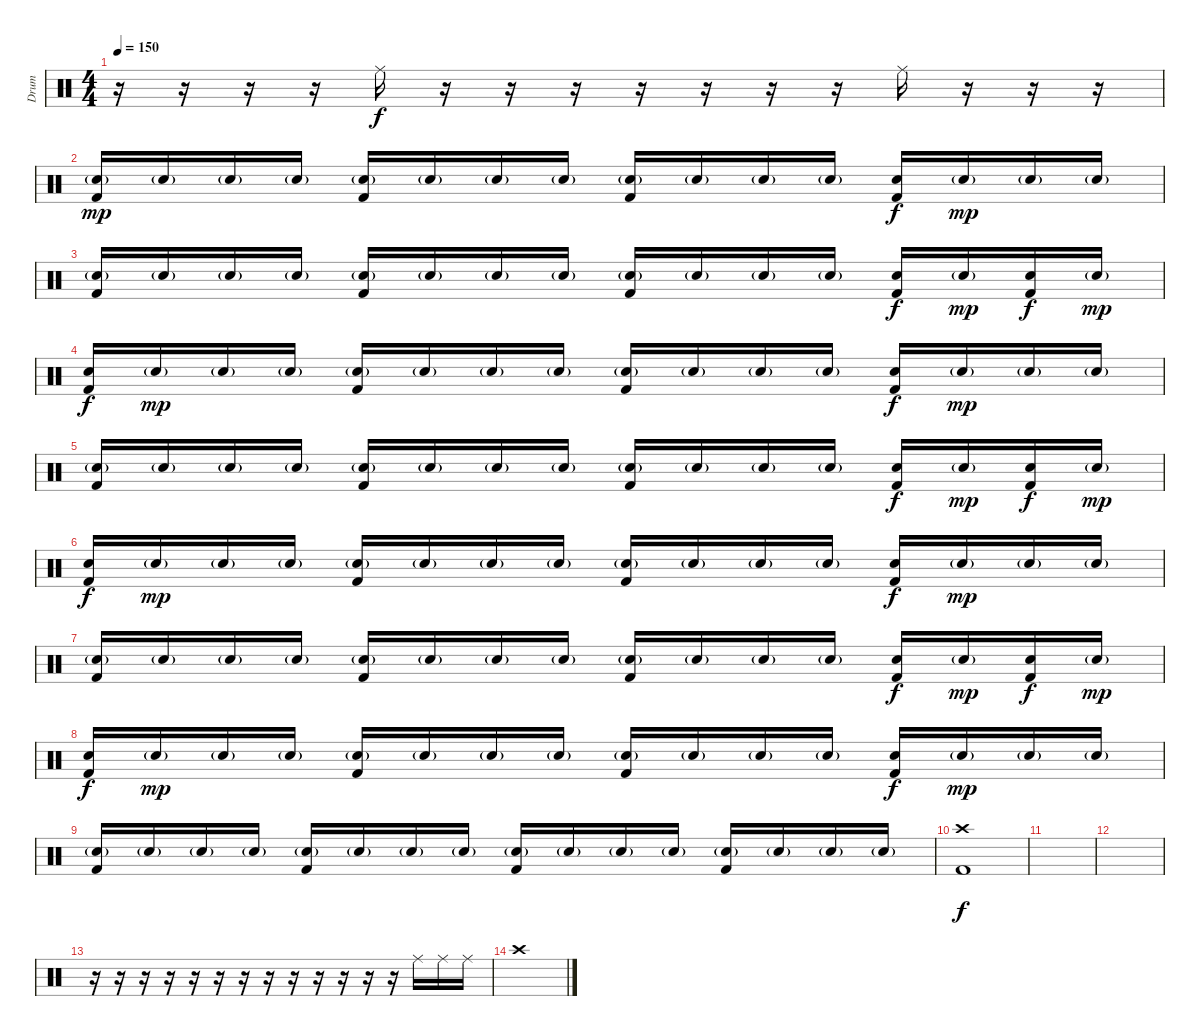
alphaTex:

\track ("Drum" "Drum") {instrument percussion}
\staff {score}
\articulation defaults
\ts (4 4)
\tempo 150
\clef neutral
\ks c
r.16{dy f} r.16 r.16 r.16 "Ride (middle)".16 r.16 r.16 r.16 r.16 r.16 r.16 r.16 "Ride (middle)".16 r.16 r.16 r.16 |
("Electric Snare (hit)"{g} "Kick (hit) 2").16{dy mp} "Electric Snare (hit)"{g}.16 "Electric Snare (hit)"{g}.16 "Electric Snare (hit)"{g}.16 ("Electric Snare (hit)"{g} "Kick (hit) 2").16 "Electric Snare (hit)"{g}.16 "Electric Snare (hit)"{g}.16 "Electric Snare (hit)"{g}.16 ("Electric Snare (hit)"{g} "Kick (hit) 2").16 "Electric Snare (hit)"{g}.16 "Electric Snare (hit)"{g}.16 "Electric Snare (hit)"{g}.16 ("Electric Snare (hit)" "Kick (hit) 2").16{dy f} "Electric Snare (hit)"{g}.16{dy mp} "Electric Snare (hit)"{g}.16 "Electric Snare (hit)"{g}.16 |
("Electric Snare (hit)"{g} "Kick (hit) 2").16 "Electric Snare (hit)"{g}.16 "Electric Snare (hit)"{g}.16 "Electric Snare (hit)"{g}.16 ("Electric Snare (hit)"{g} "Kick (hit) 2").16 "Electric Snare (hit)"{g}.16 "Electric Snare (hit)"{g}.16 "Electric Snare (hit)"{g}.16 ("Electric Snare (hit)"{g} "Kick (hit) 2").16 "Electric Snare (hit)"{g}.16 "Electric Snare (hit)"{g}.16 "Electric Snare (hit)"{g}.16 ("Electric Snare (hit)" "Kick (hit) 2").16{dy f} "Electric Snare (hit)"{g}.16{dy mp} ("Electric Snare (hit)" "Kick (hit) 2").16{dy f} "Electric Snare (hit)"{g}.16{dy mp} |
("Electric Snare (hit)" "Kick (hit) 2").16{dy f} "Electric Snare (hit)"{g}.16{dy mp} "Electric Snare (hit)"{g}.16 "Electric Snare (hit)"{g}.16 ("Electric Snare (hit)"{g} "Kick (hit) 2").16 "Electric Snare (hit)"{g}.16 "Electric Snare (hit)"{g}.16 "Electric Snare (hit)"{g}.16 ("Electric Snare (hit)"{g} "Kick (hit) 2").16 "Electric Snare (hit)"{g}.16 "Electric Snare (hit)"{g}.16 "Electric Snare (hit)"{g}.16 ("Electric Snare (hit)" "Kick (hit) 2").16{dy f} "Electric Snare (hit)"{g}.16{dy mp} "Electric Snare (hit)"{g}.16 "Electric Snare (hit)"{g}.16 |
("Electric Snare (hit)"{g} "Kick (hit) 2").16 "Electric Snare (hit)"{g}.16 "Electric Snare (hit)"{g}.16 "Electric Snare (hit)"{g}.16 ("Electric Snare (hit)"{g} "Kick (hit) 2").16 "Electric Snare (hit)"{g}.16 "Electric Snare (hit)"{g}.16 "Electric Snare (hit)"{g}.16 ("Electric Snare (hit)"{g} "Kick (hit) 2").16 "Electric Snare (hit)"{g}.16 "Electric Snare (hit)"{g}.16 "Electric Snare (hit)"{g}.16 ("Electric Snare (hit)" "Kick (hit) 2").16{dy f} "Electric Snare (hit)"{g}.16{dy mp} ("Electric Snare (hit)" "Kick (hit) 2").16{dy f} "Electric Snare (hit)"{g}.16{dy mp} |
("Electric Snare (hit)" "Kick (hit) 2").16{dy f} "Electric Snare (hit)"{g}.16{dy mp} "Electric Snare (hit)"{g}.16 "Electric Snare (hit)"{g}.16 ("Electric Snare (hit)"{g} "Kick (hit) 2").16 "Electric Snare (hit)"{g}.16 "Electric Snare (hit)"{g}.16 "Electric Snare (hit)"{g}.16 ("Electric Snare (hit)"{g} "Kick (hit) 2").16 "Electric Snare (hit)"{g}.16 "Electric Snare (hit)"{g}.16 "Electric Snare (hit)"{g}.16 ("Electric Snare (hit)" "Kick (hit) 2").16{dy f} "Electric Snare (hit)"{g}.16{dy mp} "Electric Snare (hit)"{g}.16 "Electric Snare (hit)"{g}.16 |
("Electric Snare (hit)"{g} "Kick (hit) 2").16 "Electric Snare (hit)"{g}.16 "Electric Snare (hit)"{g}.16 "Electric Snare (hit)"{g}.16 ("Electric Snare (hit)"{g} "Kick (hit) 2").16 "Electric Snare (hit)"{g}.16 "Electric Snare (hit)"{g}.16 "Electric Snare (hit)"{g}.16 ("Electric Snare (hit)"{g} "Kick (hit) 2").16 "Electric Snare (hit)"{g}.16 "Electric Snare (hit)"{g}.16 "Electric Snare (hit)"{g}.16 ("Electric Snare (hit)" "Kick (hit) 2").16{dy f} "Electric Snare (hit)"{g}.16{dy mp} ("Electric Snare (hit)" "Kick (hit) 2").16{dy f} "Electric Snare (hit)"{g}.16{dy mp} |
("Electric Snare (hit)" "Kick (hit) 2").16{dy f} "Electric Snare (hit)"{g}.16{dy mp} "Electric Snare (hit)"{g}.16 "Electric Snare (hit)"{g}.16 ("Electric Snare (hit)"{g} "Kick (hit) 2").16 "Electric Snare (hit)"{g}.16 "Electric Snare (hit)"{g}.16 "Electric Snare (hit)"{g}.16 ("Electric Snare (hit)"{g} "Kick (hit) 2").16 "Electric Snare (hit)"{g}.16 "Electric Snare (hit)"{g}.16 "Electric Snare (hit)"{g}.16 ("Electric Snare (hit)" "Kick (hit) 2").16{dy f} "Electric Snare (hit)"{g}.16{dy mp} "Electric Snare (hit)"{g}.16 "Electric Snare (hit)"{g}.16 |
("Electric Snare (hit)"{g} "Kick (hit) 2").16 "Electric Snare (hit)"{g}.16 "Electric Snare (hit)"{g}.16 "Electric Snare (hit)"{g}.16 ("Electric Snare (hit)"{g} "Kick (hit) 2").16 "Electric Snare (hit)"{g}.16 "Electric Snare (hit)"{g}.16 "Electric Snare (hit)"{g}.16 ("Electric Snare (hit)"{g} "Kick (hit) 2").16 "Electric Snare (hit)"{g}.16 "Electric Snare (hit)"{g}.16 "Electric Snare (hit)"{g}.16 ("Electric Snare (hit)"{g} "Kick (hit) 2").16 "Electric Snare (hit)"{g}.16 "Electric Snare (hit)"{g}.16 "Electric Snare (hit)"{g}.16 |
("Crash high (hit)" "Kick (hit) 2").1{dy f} |
|
|
r.16 r.16 r.16 r.16 r.16 r.16 r.16 r.16 r.16 r.16 r.16 r.16 r.16 "Ride (middle)".16 "Ride (middle)".16 "Ride (middle)".16 |
"Crash high (hit)".1
